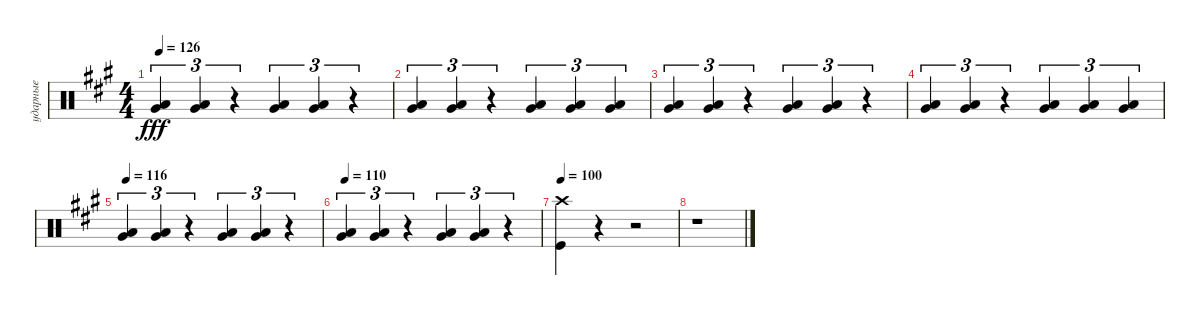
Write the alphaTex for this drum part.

\track ("ударные" "ударные") {instrument percussion}
\staff {score}
\articulation defaults
\ts (4 4)
\tempo 126
\clef neutral
\ks f#minor
("Very Low Tom (hit)" "Low Tom (hit)").4{tu (3 2) dy fff} ("Very Low Tom (hit)" "Low Tom (hit)").4{tu (3 2)} r.4{tu (3 2)} ("Very Low Tom (hit)" "Low Tom (hit)").4{tu (3 2)} ("Very Low Tom (hit)" "Low Tom (hit)").4{tu (3 2)} r.4{tu (3 2)} |
("Very Low Tom (hit)" "Low Tom (hit)").4{tu (3 2)} ("Very Low Tom (hit)" "Low Tom (hit)").4{tu (3 2)} r.4{tu (3 2)} ("Very Low Tom (hit)" "Low Tom (hit)").4{tu (3 2)} ("Very Low Tom (hit)" "Low Tom (hit)").4{tu (3 2)} ("Very Low Tom (hit)" "Low Tom (hit)").4{tu (3 2)} |
("Very Low Tom (hit)" "Low Tom (hit)").4{tu (3 2)} ("Very Low Tom (hit)" "Low Tom (hit)").4{tu (3 2)} r.4{tu (3 2)} ("Very Low Tom (hit)" "Low Tom (hit)").4{tu (3 2)} ("Very Low Tom (hit)" "Low Tom (hit)").4{tu (3 2)} r.4{tu (3 2)} |
("Very Low Tom (hit)" "Low Tom (hit)").4{tu (3 2)} ("Very Low Tom (hit)" "Low Tom (hit)").4{tu (3 2)} r.4{tu (3 2)} ("Very Low Tom (hit)" "Low Tom (hit)").4{tu (3 2)} ("Very Low Tom (hit)" "Low Tom (hit)").4{tu (3 2)} ("Very Low Tom (hit)" "Low Tom (hit)").4{tu (3 2)} |
\tempo 116
("Very Low Tom (hit)" "Low Tom (hit)").4{tu (3 2)} ("Very Low Tom (hit)" "Low Tom (hit)").4{tu (3 2)} r.4{tu (3 2)} ("Very Low Tom (hit)" "Low Tom (hit)").4{tu (3 2)} ("Very Low Tom (hit)" "Low Tom (hit)").4{tu (3 2)} r.4{tu (3 2)} |
\tempo 110
("Very Low Tom (hit)" "Low Tom (hit)").4{tu (3 2)} ("Very Low Tom (hit)" "Low Tom (hit)").4{tu (3 2)} r.4{tu (3 2)} ("Very Low Tom (hit)" "Low Tom (hit)").4{tu (3 2)} ("Very Low Tom (hit)" "Low Tom (hit)").4{tu (3 2)} r.4{tu (3 2)} |
\tempo 100
("Kick (hit)" "Crash high (hit)").4 r.4 r.2 |
r.1
